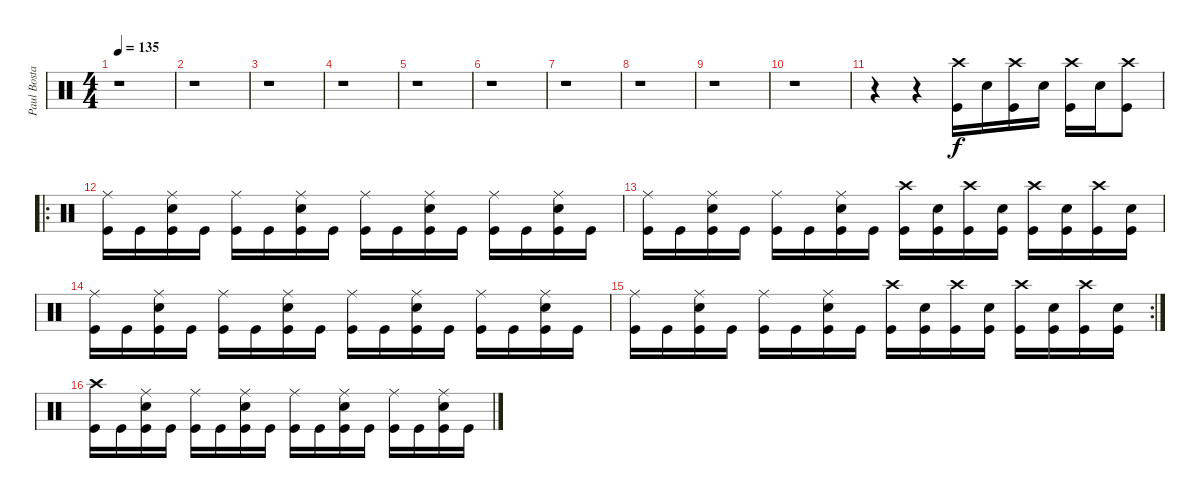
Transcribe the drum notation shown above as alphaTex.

\track ("Paul Bostaph" "Paul Bosta") {instrument percussion}
\staff {score}
\articulation defaults
\ts (4 4)
\tempo 135
\clef neutral
\ks c
r.1{dy f} |
r.1 |
r.1 |
r.1 |
r.1 |
r.1 |
r.1 |
r.1 |
r.1 |
r.1 |
r.4 r.4 ("Crash high (hit)" "Kick (hit)").16 "Snare (hit) 2".16 ("Crash high (hit)" "Kick (hit)").16 "Snare (hit) 2".16 ("Crash high (hit)" "Kick (hit)").16 "Snare (hit) 2".16 ("Crash high (hit)" "Kick (hit)").8 |
\ro
("Ride (middle)" "Kick (hit)").16 "Kick (hit)".16 ("Ride (middle)" "Snare (hit) 2" "Kick (hit)").16 "Kick (hit)".16 ("Ride (middle)" "Kick (hit)").16 "Kick (hit)".16 ("Ride (middle)" "Snare (hit) 2" "Kick (hit)").16 "Kick (hit)".16 ("Ride (middle)" "Kick (hit)").16 "Kick (hit)".16 ("Ride (middle)" "Snare (hit) 2" "Kick (hit)").16 "Kick (hit)".16 ("Ride (middle)" "Kick (hit)").16 "Kick (hit)".16 ("Ride (middle)" "Snare (hit) 2" "Kick (hit)").16 "Kick (hit)".16 |
("Ride (middle)" "Kick (hit)").16 "Kick (hit)".16 ("Ride (middle)" "Snare (hit) 2" "Kick (hit)").16 "Kick (hit)".16 ("Ride (middle)" "Kick (hit)").16 "Kick (hit)".16 ("Ride (middle)" "Snare (hit) 2" "Kick (hit)").16 "Kick (hit)".16 ("Crash high (hit)" "Kick (hit)").16 ("Snare (hit) 2" "Kick (hit)").16 ("Crash high (hit)" "Kick (hit)").16 ("Snare (hit) 2" "Kick (hit)").16 ("Crash high (hit)" "Kick (hit)").16 ("Snare (hit) 2" "Kick (hit)").16 ("Crash high (hit)" "Kick (hit)").16 ("Snare (hit) 2" "Kick (hit)").16 |
("Ride (middle)" "Kick (hit)").16 "Kick (hit)".16 ("Ride (middle)" "Snare (hit) 2" "Kick (hit)").16 "Kick (hit)".16 ("Ride (middle)" "Kick (hit)").16 "Kick (hit)".16 ("Ride (middle)" "Snare (hit) 2" "Kick (hit)").16 "Kick (hit)".16 ("Ride (middle)" "Kick (hit)").16 "Kick (hit)".16 ("Ride (middle)" "Snare (hit) 2" "Kick (hit)").16 "Kick (hit)".16 ("Ride (middle)" "Kick (hit)").16 "Kick (hit)".16 ("Ride (middle)" "Snare (hit) 2" "Kick (hit)").16 "Kick (hit)".16 |
\rc 2
("Ride (middle)" "Kick (hit)").16 "Kick (hit)".16 ("Ride (middle)" "Snare (hit) 2" "Kick (hit)").16 "Kick (hit)".16 ("Ride (middle)" "Kick (hit)").16 "Kick (hit)".16 ("Ride (middle)" "Snare (hit) 2" "Kick (hit)").16 "Kick (hit)".16 ("Crash high (hit)" "Kick (hit)").16 ("Snare (hit) 2" "Kick (hit)").16 ("Crash high (hit)" "Kick (hit)").16 ("Snare (hit) 2" "Kick (hit)").16 ("Crash high (hit)" "Kick (hit)").16 ("Snare (hit) 2" "Kick (hit)").16 ("Crash high (hit)" "Kick (hit)").16 ("Snare (hit) 2" "Kick (hit)").16 |
("Crash high (hit)" "Kick (hit)").16 "Kick (hit)".16 ("Ride (middle)" "Snare (hit) 2" "Kick (hit)").16 "Kick (hit)".16 ("Ride (middle)" "Kick (hit)").16 "Kick (hit)".16 ("Ride (middle)" "Snare (hit) 2" "Kick (hit)").16 "Kick (hit)".16 ("Ride (middle)" "Kick (hit)").16 "Kick (hit)".16 ("Ride (middle)" "Snare (hit) 2" "Kick (hit)").16 "Kick (hit)".16 ("Ride (middle)" "Kick (hit)").16 "Kick (hit)".16 ("Ride (middle)" "Snare (hit) 2" "Kick (hit)").16 "Kick (hit)".16
